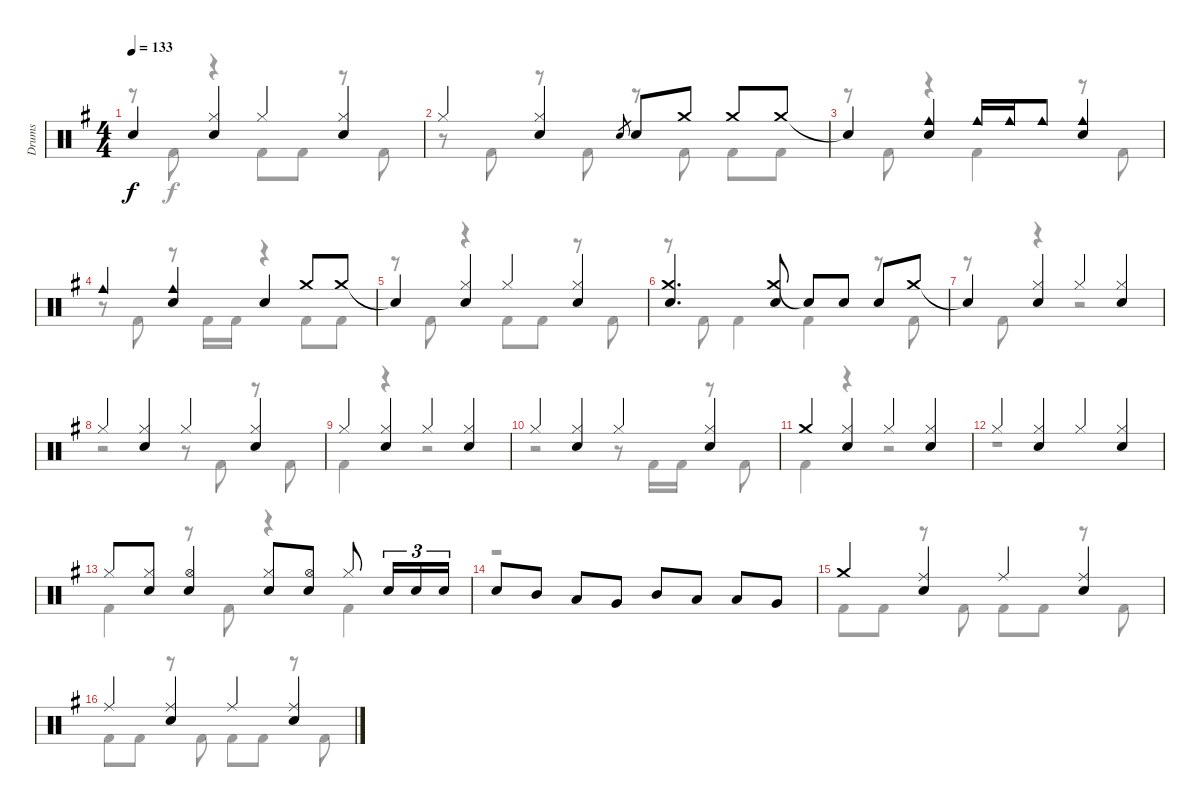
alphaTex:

\track ("Drums" "Drums") {instrument percussion}
\staff {score}
\articulation defaults
\voice
\ts (4 4)
\tempo 133
\clef neutral
\ks g "Snare (hit)"{t}.4{dy f}
("Hi-Hat (closed)" "Snare (hit) 2").4 "Hi-Hat (closed)".4 ("Hi-Hat (closed)" "Snare (hit) 2").4 |
"Hi-Hat (closed)".4 ("Hi-Hat (closed)" "Snare (hit) 2").4 "Snare (hit) 2".8{gr} "Snare (hit) 2".8 "Crash medium (hit)".8 "Crash medium (hit)".8 "Crash medium (hit)".8 |
"Snare (hit)"{t}.4 ("Cowbell medium (hit)" "Snare (hit) 2").4 "Cowbell medium (hit)".16 "Cowbell medium (hit)".16 "Cowbell medium (hit)".8 ("Cowbell medium (hit)" "Snare (hit) 2").4 |
"Cowbell medium (hit)".4 ("Cowbell medium (hit)" "Snare (hit) 2").4 "Snare (hit) 2".4 "Crash medium (hit)".8 "Crash medium (hit)".8 |
"Snare (hit)"{t}.4 ("Hi-Hat (closed)" "Snare (hit) 2").4 "Hi-Hat (closed)".4 ("Hi-Hat (closed)" "Snare (hit) 2").4 |
("Crash medium (hit)" "Snare (hit) 2").4{d} ("Crash medium (hit)" "Snare (hit) 2").8 "Snare (hit)"{t}.8 "Snare (hit) 2".8 "Snare (hit) 2".8 "Crash medium (hit)".8 |
"Snare (hit)"{t}.4 ("Hi-Hat (closed)" "Snare (hit) 2").4 "Hi-Hat (closed)".4 ("Hi-Hat (closed)" "Snare (hit) 2").4 |
"Hi-Hat (closed)".4 ("Hi-Hat (closed)" "Snare (hit) 2").4 "Hi-Hat (closed)".4 ("Hi-Hat (closed)" "Snare (hit) 2").4 |
"Hi-Hat (closed)".4 ("Hi-Hat (closed)" "Snare (hit) 2").4 "Hi-Hat (closed)".4 ("Hi-Hat (closed)" "Snare (hit) 2").4 |
"Hi-Hat (closed)".4 ("Hi-Hat (closed)" "Snare (hit) 2").4 "Hi-Hat (closed)".4 ("Hi-Hat (closed)" "Snare (hit) 2").4 |
"Crash medium (hit)".4 ("Hi-Hat (closed)" "Snare (hit) 2").4 "Hi-Hat (closed)".4 ("Hi-Hat (closed)" "Snare (hit) 2").4 |
"Hi-Hat (closed)".4 ("Hi-Hat (closed)" "Snare (hit) 2").4 "Hi-Hat (closed)".4 ("Hi-Hat (closed)" "Snare (hit) 2").4 |
"Hi-Hat (closed)".8 ("Hi-Hat (closed)" "Snare (hit) 2").8 ("Hi-Hat (open)" "Snare (hit) 2").4 ("Hi-Hat (closed)" "Snare (hit) 2").8 ("Hi-Hat (open)" "Snare (hit) 2").8 "Hi-Hat (closed)".8 "Snare (hit) 2".16{tu (3 2)} "Snare (hit) 2".16{tu (3 2)} "Snare (hit) 2".16{tu (3 2)} |
"Snare (hit) 2".8 "Mid Tom (hit)".8 "Low Tom (hit)".8 "Very Low Tom (hit)".8 "Mid Tom (hit)".8 "Low Tom (hit)".8 "Low Tom (hit)".8 "Very Low Tom (hit)".8 |
"Crash medium (hit)".4 ("Ride (middle)" "Snare (hit) 2").4 "Ride (middle)".4 ("Ride (middle)" "Snare (hit) 2").4 |
"Ride (middle)".4 ("Ride (middle)" "Snare (hit) 2").4 "Ride (middle)".4 ("Ride (middle)" "Snare (hit) 2").4
\voice
\clef neutral
\ottava regular
\simile none
\ks g
r.8{dy f} "Kick (hit) 2".8 r.4 "Kick (hit) 2".8 "Kick (hit) 2".8 r.8 "Kick (hit) 2".8 |
r.8 "Kick (hit) 2".8 r.8 "Kick (hit) 2".8 r.8 "Kick (hit) 2".8 "Kick (hit) 2".8 "Kick (hit) 2".8 |
r.8 "Kick (hit) 2".8 r.4 "Kick (hit) 2".4 r.8 "Kick (hit) 2".8 |
r.8 "Kick (hit) 2".8 r.8 "Kick (hit) 2".16 "Kick (hit) 2".16 r.4 "Kick (hit) 2".8 "Kick (hit) 2".8 |
r.8 "Kick (hit) 2".8 r.4 "Kick (hit) 2".8 "Kick (hit) 2".8 r.8 "Kick (hit) 2".8 |
r.8 "Kick (hit) 2".8 "Kick (hit) 2".4 "Kick (hit) 2".4 r.8 "Kick (hit) 2".8 |
r.8 "Kick (hit) 2".8 r.4 r.2 |
r.2 r.8 "Kick (hit) 2".8 r.8 "Kick (hit) 2".8 |
"Kick (hit) 2".4 r.4 r.2 |
r.2 r.8 "Kick (hit) 2".16 "Kick (hit) 2".16 r.8 "Kick (hit) 2".8 |
"Kick (hit) 2".4 r.4 r.2 |
r.1 |
"Kick (hit) 2".4 r.8 "Kick (hit) 2".8 r.4 "Kick (hit) 2".4 |
r.1 |
"Kick (hit) 2".8 "Kick (hit) 2".8 r.8 "Kick (hit) 2".8 "Kick (hit) 2".8 "Kick (hit) 2".8 r.8 "Kick (hit) 2".8 |
"Kick (hit) 2".8 "Kick (hit) 2".8 r.8 "Kick (hit) 2".8 "Kick (hit) 2".8 "Kick (hit) 2".8 r.8 "Kick (hit) 2".8
